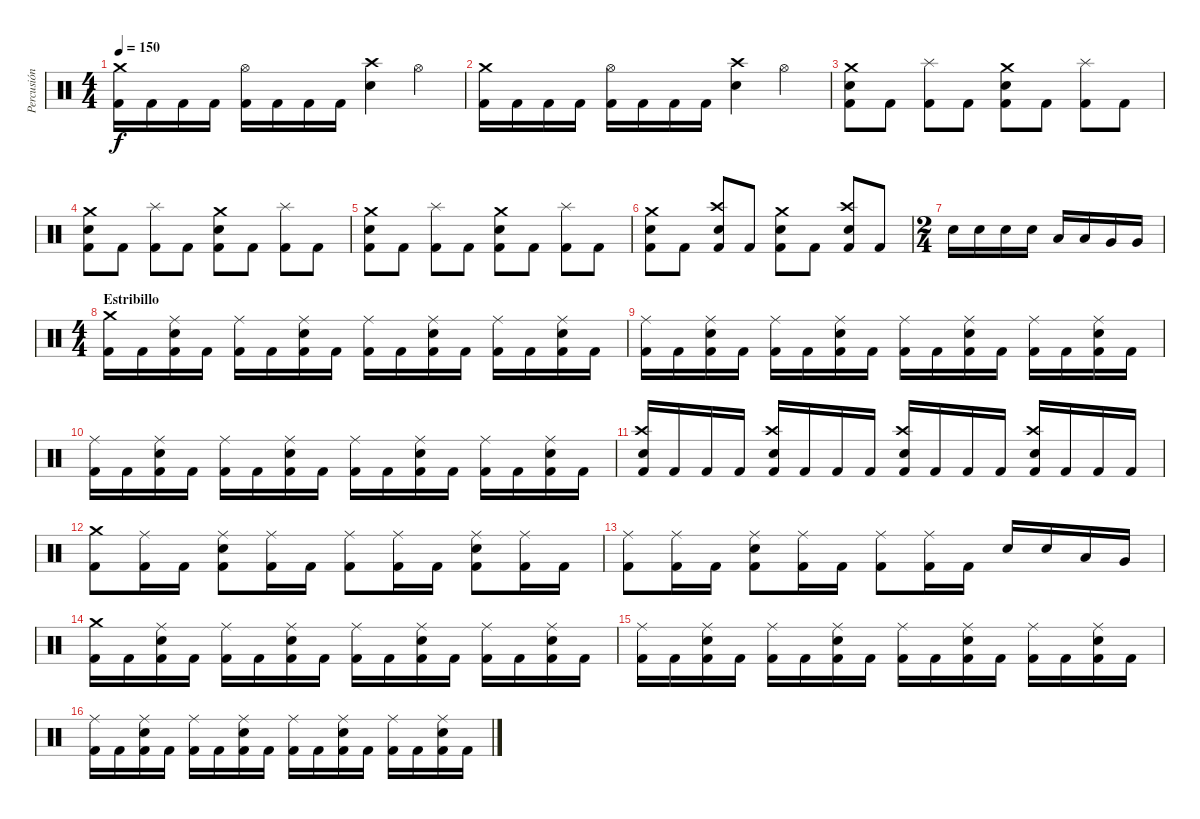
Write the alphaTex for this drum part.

\track ("Percusión" "Percusión") {instrument percussion}
\staff {score}
\articulation defaults
\ts (4 4)
\tempo 150
\clef neutral
\ks c
("Crash medium (hit)" "Kick (hit) 2").16{dy f} "Kick (hit) 2".16 "Kick (hit) 2".16 "Kick (hit) 2".16 ("Hi-Hat (open)" "Kick (hit) 2").16 "Kick (hit) 2".16 "Kick (hit) 2".16 "Kick (hit) 2".16 ("Crash high (hit)" "Snare (hit) 2").4 "Hi-Hat (open)".4 |
("Crash medium (hit)" "Kick (hit) 2").16 "Kick (hit) 2".16 "Kick (hit) 2".16 "Kick (hit) 2".16 ("Hi-Hat (open)" "Kick (hit) 2").16 "Kick (hit) 2".16 "Kick (hit) 2".16 "Kick (hit) 2".16 ("Crash high (hit)" "Snare (hit) 2").4 "Hi-Hat (open)".4 |
("Crash medium (hit)" "Kick (hit) 2" "Snare (hit) 2").8 "Kick (hit) 2".8 ("Splash (hit)" "Kick (hit) 2").8 "Kick (hit) 2".8 ("Crash medium (hit)" "Kick (hit) 2" "Snare (hit) 2").8 "Kick (hit) 2".8 ("Splash (hit)" "Kick (hit) 2").8 "Kick (hit) 2".8 |
("Crash medium (hit)" "Kick (hit) 2" "Snare (hit) 2").8 "Kick (hit) 2".8 ("Splash (hit)" "Kick (hit) 2").8 "Kick (hit) 2".8 ("Crash medium (hit)" "Kick (hit) 2" "Snare (hit) 2").8 "Kick (hit) 2".8 ("Splash (hit)" "Kick (hit) 2").8 "Kick (hit) 2".8 |
("Crash medium (hit)" "Kick (hit) 2" "Snare (hit) 2").8 "Kick (hit) 2".8 ("Splash (hit)" "Kick (hit) 2").8 "Kick (hit) 2".8 ("Crash medium (hit)" "Kick (hit) 2" "Snare (hit) 2").8 "Kick (hit) 2".8 ("Splash (hit)" "Kick (hit) 2").8 "Kick (hit) 2".8 |
("Crash medium (hit)" "Kick (hit) 2" "Snare (hit) 2").8 "Kick (hit) 2".8 ("Crash high (hit)" "Kick (hit) 2" "Snare (hit) 2").8 "Kick (hit) 2".8 ("Crash medium (hit)" "Kick (hit) 2" "Snare (hit) 2").8 "Kick (hit) 2".8 ("Crash high (hit)" "Kick (hit) 2" "Snare (hit) 2").8 "Kick (hit) 2".8 |
\ts (2 4)
"Snare (hit) 2".16 "Snare (hit) 2".16 "Snare (hit) 2".16 "Snare (hit) 2".16 "Low Tom (hit)".16 "Low Tom (hit)".16 "Very Low Tom (hit)".16 "Very Low Tom (hit)".16 |
\ts (4 4)
\section ("" "Estribillo")
("Crash medium (hit)" "Kick (hit) 2").16 "Kick (hit) 2".16 ("Ride (middle)" "Kick (hit) 2" "Snare (hit) 2").16 "Kick (hit) 2".16 ("Ride (middle)" "Kick (hit) 2").16 "Kick (hit) 2".16 ("Ride (middle)" "Kick (hit) 2" "Snare (hit) 2").16 "Kick (hit) 2".16 ("Ride (middle)" "Kick (hit) 2").16 "Kick (hit) 2".16 ("Ride (middle)" "Kick (hit) 2" "Snare (hit) 2").16 "Kick (hit) 2".16 ("Ride (middle)" "Kick (hit) 2").16 "Kick (hit) 2".16 ("Ride (middle)" "Kick (hit) 2" "Snare (hit) 2").16 "Kick (hit) 2".16 |
("Ride (middle)" "Kick (hit) 2").16 "Kick (hit) 2".16 ("Ride (middle)" "Kick (hit) 2" "Snare (hit) 2").16 "Kick (hit) 2".16 ("Ride (middle)" "Kick (hit) 2").16 "Kick (hit) 2".16 ("Ride (middle)" "Kick (hit) 2" "Snare (hit) 2").16 "Kick (hit) 2".16 ("Ride (middle)" "Kick (hit) 2").16 "Kick (hit) 2".16 ("Ride (middle)" "Kick (hit) 2" "Snare (hit) 2").16 "Kick (hit) 2".16 ("Ride (middle)" "Kick (hit) 2").16 "Kick (hit) 2".16 ("Ride (middle)" "Kick (hit) 2" "Snare (hit) 2").16 "Kick (hit) 2".16 |
("Ride (middle)" "Kick (hit) 2").16 "Kick (hit) 2".16 ("Ride (middle)" "Kick (hit) 2" "Snare (hit) 2").16 "Kick (hit) 2".16 ("Ride (middle)" "Kick (hit) 2").16 "Kick (hit) 2".16 ("Ride (middle)" "Kick (hit) 2" "Snare (hit) 2").16 "Kick (hit) 2".16 ("Ride (middle)" "Kick (hit) 2").16 "Kick (hit) 2".16 ("Ride (middle)" "Kick (hit) 2" "Snare (hit) 2").16 "Kick (hit) 2".16 ("Ride (middle)" "Kick (hit) 2").16 "Kick (hit) 2".16 ("Ride (middle)" "Kick (hit) 2" "Snare (hit) 2").16 "Kick (hit) 2".16 |
("Crash high (hit)" "Kick (hit) 2" "Snare (hit) 2").16 "Kick (hit) 2".16 "Kick (hit) 2".16 "Kick (hit) 2".16 ("Crash high (hit)" "Kick (hit) 2" "Snare (hit) 2").16 "Kick (hit) 2".16 "Kick (hit) 2".16 "Kick (hit) 2".16 ("Crash high (hit)" "Kick (hit) 2" "Snare (hit) 2").16 "Kick (hit) 2".16 "Kick (hit) 2".16 "Kick (hit) 2".16 ("Crash high (hit)" "Kick (hit) 2" "Snare (hit) 2").16 "Kick (hit) 2".16 "Kick (hit) 2".16 "Kick (hit) 2".16 |
("Crash medium (hit)" "Kick (hit) 2").8 ("Ride (middle)" "Kick (hit) 2").16 "Kick (hit) 2".16 ("Ride (middle)" "Kick (hit) 2" "Snare (hit) 2").8 ("Ride (middle)" "Kick (hit) 2").16 "Kick (hit) 2".16 ("Ride (middle)" "Kick (hit) 2").8 ("Ride (middle)" "Kick (hit) 2").16 "Kick (hit) 2".16 ("Ride (middle)" "Kick (hit) 2" "Snare (hit) 2").8 ("Ride (middle)" "Kick (hit) 2").16 "Kick (hit) 2".16 |
("Ride (middle)" "Kick (hit) 2").8 ("Ride (middle)" "Kick (hit) 2").16 "Kick (hit) 2".16 ("Ride (middle)" "Kick (hit) 2" "Snare (hit) 2").8 ("Ride (middle)" "Kick (hit) 2").16 "Kick (hit) 2".16 ("Ride (middle)" "Kick (hit) 2").8 ("Ride (middle)" "Kick (hit) 2").16 "Kick (hit) 2".16 "Snare (hit) 2".16 "Snare (hit) 2".16 "Low Tom (hit)".16 "Very Low Tom (hit)".16 |
("Crash medium (hit)" "Kick (hit) 2").16 "Kick (hit) 2".16 ("Ride (middle)" "Kick (hit) 2" "Snare (hit) 2").16 "Kick (hit) 2".16 ("Ride (middle)" "Kick (hit) 2").16 "Kick (hit) 2".16 ("Ride (middle)" "Kick (hit) 2" "Snare (hit) 2").16 "Kick (hit) 2".16 ("Ride (middle)" "Kick (hit) 2").16 "Kick (hit) 2".16 ("Ride (middle)" "Kick (hit) 2" "Snare (hit) 2").16 "Kick (hit) 2".16 ("Ride (middle)" "Kick (hit) 2").16 "Kick (hit) 2".16 ("Ride (middle)" "Kick (hit) 2" "Snare (hit) 2").16 "Kick (hit) 2".16 |
("Ride (middle)" "Kick (hit) 2").16 "Kick (hit) 2".16 ("Ride (middle)" "Kick (hit) 2" "Snare (hit) 2").16 "Kick (hit) 2".16 ("Ride (middle)" "Kick (hit) 2").16 "Kick (hit) 2".16 ("Ride (middle)" "Kick (hit) 2" "Snare (hit) 2").16 "Kick (hit) 2".16 ("Ride (middle)" "Kick (hit) 2").16 "Kick (hit) 2".16 ("Ride (middle)" "Kick (hit) 2" "Snare (hit) 2").16 "Kick (hit) 2".16 ("Ride (middle)" "Kick (hit) 2").16 "Kick (hit) 2".16 ("Ride (middle)" "Kick (hit) 2" "Snare (hit) 2").16 "Kick (hit) 2".16 |
("Ride (middle)" "Kick (hit) 2").16 "Kick (hit) 2".16 ("Ride (middle)" "Kick (hit) 2" "Snare (hit) 2").16 "Kick (hit) 2".16 ("Ride (middle)" "Kick (hit) 2").16 "Kick (hit) 2".16 ("Ride (middle)" "Kick (hit) 2" "Snare (hit) 2").16 "Kick (hit) 2".16 ("Ride (middle)" "Kick (hit) 2").16 "Kick (hit) 2".16 ("Ride (middle)" "Kick (hit) 2" "Snare (hit) 2").16 "Kick (hit) 2".16 ("Ride (middle)" "Kick (hit) 2").16 "Kick (hit) 2".16 ("Ride (middle)" "Kick (hit) 2" "Snare (hit) 2").16 "Kick (hit) 2".16
